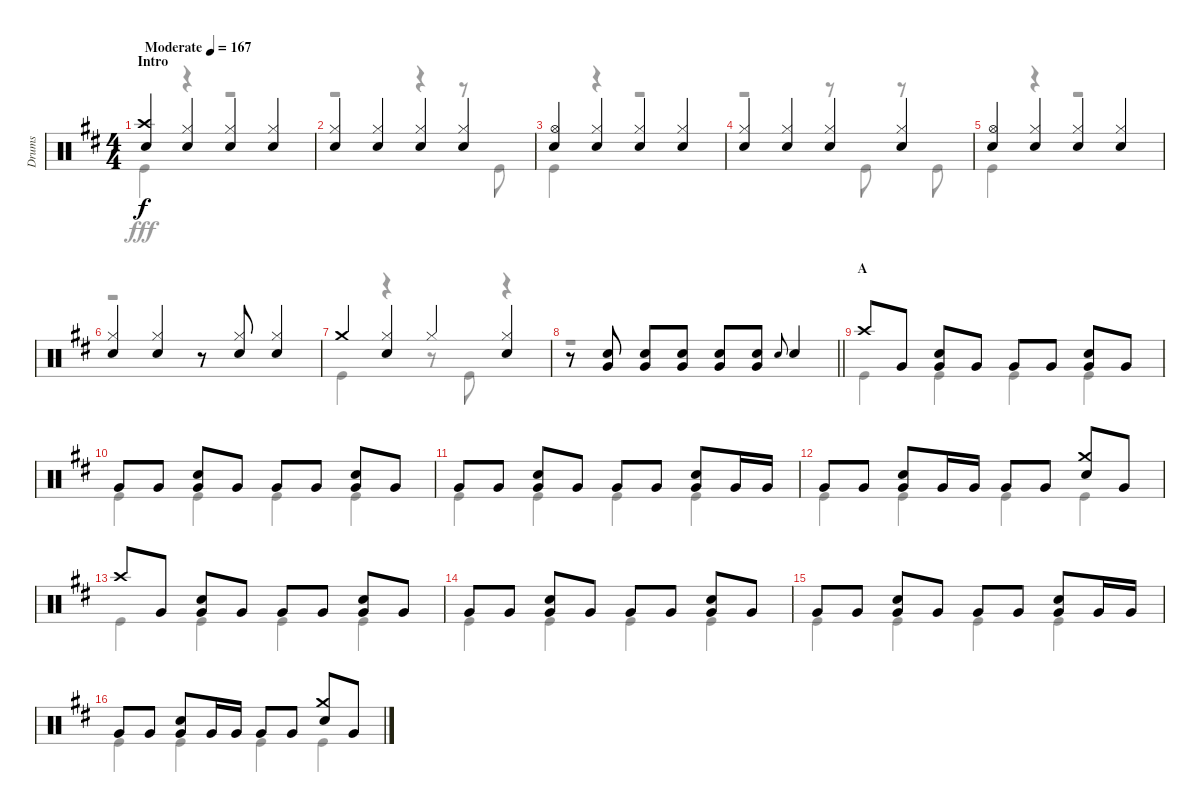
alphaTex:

\track ("Drums" "Drums") {instrument percussion}
\staff {score}
\articulation defaults
\voice
\ts (4 4)
\section ("" "Intro")
\tempo (167 "Moderate")
\clef neutral
\ks d
("Crash high (hit)" "Snare (hit) 2").4{dy f} ("Hi-Hat (closed)" "Snare (hit) 2").4 ("Hi-Hat (closed)" "Snare (hit) 2").4 ("Hi-Hat (closed)" "Snare (hit) 2").4 |
("Hi-Hat (closed)" "Snare (hit) 2").4 ("Hi-Hat (closed)" "Snare (hit) 2").4 ("Hi-Hat (closed)" "Snare (hit) 2").4 ("Hi-Hat (closed)" "Snare (hit) 2").4 |
("Hi-Hat (open)" "Snare (hit) 2").4 ("Hi-Hat (closed)" "Snare (hit) 2").4 ("Hi-Hat (closed)" "Snare (hit) 2").4 ("Hi-Hat (closed)" "Snare (hit) 2").4 |
("Hi-Hat (closed)" "Snare (hit) 2").4 ("Hi-Hat (closed)" "Snare (hit) 2").4 ("Hi-Hat (closed)" "Snare (hit) 2").4 ("Hi-Hat (closed)" "Snare (hit) 2").4 |
("Hi-Hat (open)" "Snare (hit) 2").4 ("Hi-Hat (closed)" "Snare (hit) 2").4 ("Hi-Hat (closed)" "Snare (hit) 2").4 ("Hi-Hat (closed)" "Snare (hit) 2").4 |
("Hi-Hat (closed)" "Snare (hit) 2").4 ("Hi-Hat (closed)" "Snare (hit) 2").4 r.8 ("Hi-Hat (closed)" "Snare (hit) 2").8 ("Hi-Hat (closed)" "Snare (hit) 2").4 |
"Crash medium (hit)".4 ("Hi-Hat (closed)" "Snare (hit) 2").4 "Hi-Hat (closed)".4 ("Hi-Hat (closed)" "Snare (hit) 2").4 |
\barLineRight lightlight
r.8 ("Snare (hit) 2" "Very Low Tom (hit)").8 ("Snare (hit) 2" "Very Low Tom (hit)").8 ("Snare (hit) 2" "Very Low Tom (hit)").8 ("Snare (hit) 2" "Very Low Tom (hit)").8 ("Snare (hit) 2" "Very Low Tom (hit)").8 "Snare (hit) 2".8{gr onbeat} "Snare (hit) 2".4 |
\section ("" "A")
"Crash high (hit)".8 "Very Low Tom (hit)".8 ("Snare (hit) 2" "Very Low Tom (hit)").8 "Very Low Tom (hit)".8 "Very Low Tom (hit)".8 "Very Low Tom (hit)".8 ("Snare (hit) 2" "Very Low Tom (hit)").8 "Very Low Tom (hit)".8 |
"Very Low Tom (hit)".8 "Very Low Tom (hit)".8 ("Snare (hit) 2" "Very Low Tom (hit)").8 "Very Low Tom (hit)".8 "Very Low Tom (hit)".8 "Very Low Tom (hit)".8 ("Snare (hit) 2" "Very Low Tom (hit)").8 "Very Low Tom (hit)".8 |
"Very Low Tom (hit)".8 "Very Low Tom (hit)".8 ("Snare (hit) 2" "Very Low Tom (hit)").8 "Very Low Tom (hit)".8 "Very Low Tom (hit)".8 "Very Low Tom (hit)".8 ("Snare (hit) 2" "Very Low Tom (hit)").8 "Very Low Tom (hit)".16 "Very Low Tom (hit)".16 |
"Very Low Tom (hit)".8 "Very Low Tom (hit)".8 ("Snare (hit) 2" "Very Low Tom (hit)").8 "Very Low Tom (hit)".16 "Very Low Tom (hit)".16 "Very Low Tom (hit)".8 "Very Low Tom (hit)".8 ("Crash medium (hit)" "Snare (hit) 2").8 "Very Low Tom (hit)".8 |
"Crash high (hit)".8 "Very Low Tom (hit)".8 ("Snare (hit) 2" "Very Low Tom (hit)").8 "Very Low Tom (hit)".8 "Very Low Tom (hit)".8 "Very Low Tom (hit)".8 ("Snare (hit) 2" "Very Low Tom (hit)").8 "Very Low Tom (hit)".8 |
"Very Low Tom (hit)".8 "Very Low Tom (hit)".8 ("Snare (hit) 2" "Very Low Tom (hit)").8 "Very Low Tom (hit)".8 "Very Low Tom (hit)".8 "Very Low Tom (hit)".8 ("Snare (hit) 2" "Very Low Tom (hit)").8 "Very Low Tom (hit)".8 |
"Very Low Tom (hit)".8 "Very Low Tom (hit)".8 ("Snare (hit) 2" "Very Low Tom (hit)").8 "Very Low Tom (hit)".8 "Very Low Tom (hit)".8 "Very Low Tom (hit)".8 ("Snare (hit) 2" "Very Low Tom (hit)").8 "Very Low Tom (hit)".16 "Very Low Tom (hit)".16 |
"Very Low Tom (hit)".8 "Very Low Tom (hit)".8 ("Snare (hit) 2" "Very Low Tom (hit)").8 "Very Low Tom (hit)".16 "Very Low Tom (hit)".16 "Very Low Tom (hit)".8 "Very Low Tom (hit)".8 ("Crash medium (hit)" "Snare (hit) 2").8 "Very Low Tom (hit)".8
\voice
\clef neutral
\ottava regular
\simile none
\ks d "Kick (hit)".4{dy fff}
r.4 r.2 |
r.2 r.4 r.8 "Kick (hit)".8 |
"Kick (hit)".4 r.4 r.2 |
r.2 r.8 "Kick (hit)".8 r.8 "Kick (hit)".8 |
"Kick (hit)".4 r.4 r.2 |
r.1 |
"Kick (hit)".4 r.4 r.8 "Kick (hit)".8 r.4 |
\barLineRight lightlight
r.1 |
"Kick (hit)".4 "Kick (hit)".4 "Kick (hit)".4 "Kick (hit)".4 |
"Kick (hit)".4 "Kick (hit)".4 "Kick (hit)".4 "Kick (hit)".4 |
"Kick (hit)".4 "Kick (hit)".4 "Kick (hit)".4 "Kick (hit)".4 |
"Kick (hit)".4 "Kick (hit)".4 "Kick (hit)".4 "Kick (hit)".4 |
"Kick (hit)".4 "Kick (hit)".4 "Kick (hit)".4 "Kick (hit)".4 |
"Kick (hit)".4 "Kick (hit)".4 "Kick (hit)".4 "Kick (hit)".4 |
"Kick (hit)".4 "Kick (hit)".4 "Kick (hit)".4 "Kick (hit)".4 |
"Kick (hit)".4 "Kick (hit)".4 "Kick (hit)".4 "Kick (hit)".4
